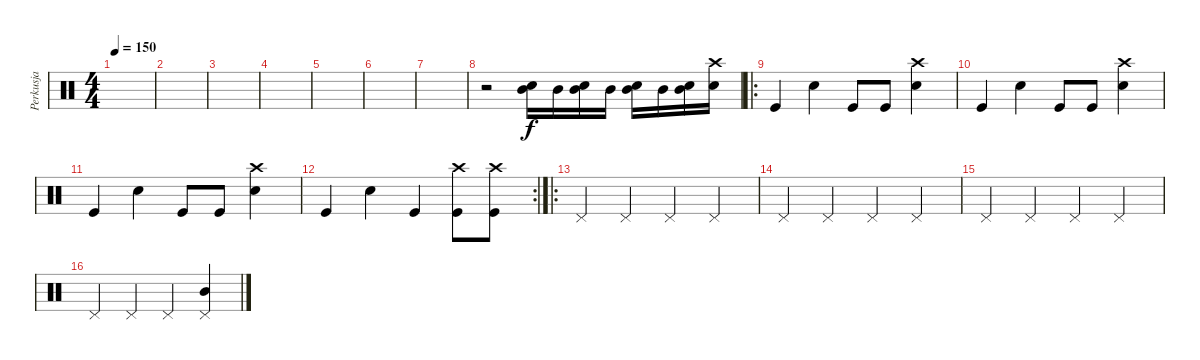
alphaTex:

\track ("Perkusja" "Perkusja") {instrument percussion}
\staff {score}
\articulation defaults
\ts (4 4)
\tempo 150
\clef neutral
\ks c
|
|
|
|
|
|
|
r.2 ("Mid Tom (hit)" "Electric Snare (hit)").16 "Mid Tom (hit)".16 ("Mid Tom (hit)" "Electric Snare (hit)").16 "Mid Tom (hit)".16 ("Mid Tom (hit)" "Electric Snare (hit)").16 "Mid Tom (hit)".16 ("Mid Tom (hit)" "Electric Snare (hit)").16 ("Crash high (hit)" "Electric Snare (hit)").16 |
\ro "Kick (hit)".4 "Electric Snare (hit)".4 "Kick (hit)".8 "Kick (hit)".8
("Crash high (hit)" "Electric Snare (hit)").4 |
"Kick (hit)".4 "Electric Snare (hit)".4 "Kick (hit)".8 "Kick (hit)".8 ("Crash high (hit)" "Electric Snare (hit)").4 |
"Kick (hit)".4 "Electric Snare (hit)".4 "Kick (hit)".8 "Kick (hit)".8 ("Crash high (hit)" "Electric Snare (hit)").4 |
\rc 2 "Kick (hit)".4 "Electric Snare (hit)".4 "Kick (hit)".4
("Crash high (hit)" "Kick (hit)").8 ("Crash high (hit)" "Kick (hit)").8 |
\ro "Pedal Hi-Hat (hit)".4 "Pedal Hi-Hat (hit)".4 "Pedal Hi-Hat (hit)".4 "Pedal Hi-Hat (hit)".4
|
"Pedal Hi-Hat (hit)".4 "Pedal Hi-Hat (hit)".4 "Pedal Hi-Hat (hit)".4 "Pedal Hi-Hat (hit)".4 |
"Pedal Hi-Hat (hit)".4 "Pedal Hi-Hat (hit)".4 "Pedal Hi-Hat (hit)".4 "Pedal Hi-Hat (hit)".4 |
"Pedal Hi-Hat (hit)".4 "Pedal Hi-Hat (hit)".4 "Pedal Hi-Hat (hit)".4 ("Mid Tom (hit)" "Pedal Hi-Hat (hit)").4
